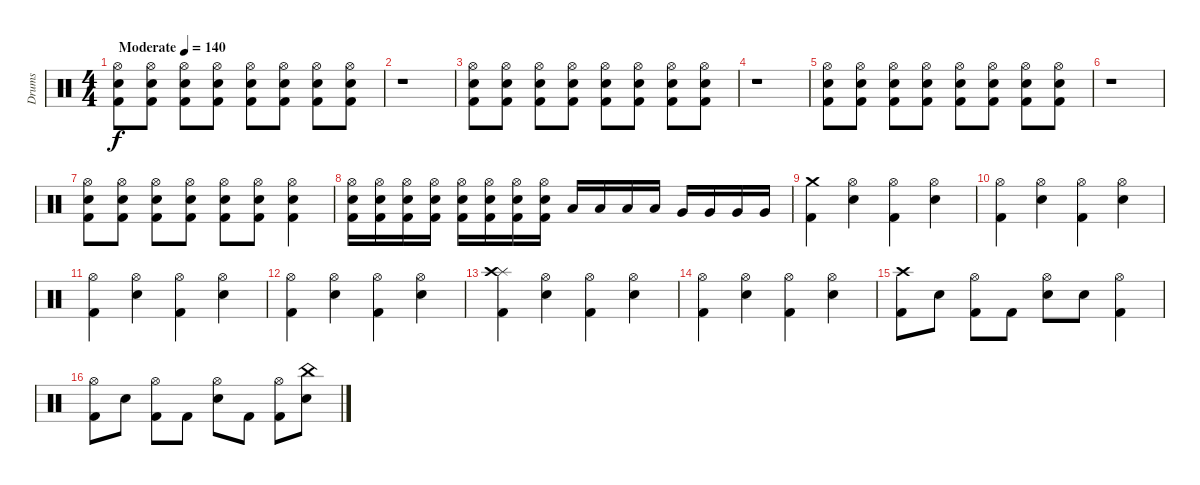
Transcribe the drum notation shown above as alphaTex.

\track ("Drums" "Drums") {instrument percussion}
\staff {score}
\articulation defaults
\ts (4 4)
\tempo (140 "Moderate")
\clef neutral
\ks c
("Hi-Hat (open)" "Snare (hit) 2" "Kick (hit) 2").8{dy f} ("Hi-Hat (open)" "Snare (hit) 2" "Kick (hit) 2").8 ("Hi-Hat (open)" "Snare (hit) 2" "Kick (hit) 2").8 ("Hi-Hat (open)" "Snare (hit) 2" "Kick (hit) 2").8 ("Hi-Hat (open)" "Snare (hit) 2" "Kick (hit) 2").8 ("Hi-Hat (open)" "Snare (hit) 2" "Kick (hit) 2").8 ("Hi-Hat (open)" "Snare (hit) 2" "Kick (hit) 2").8 ("Hi-Hat (open)" "Snare (hit) 2" "Kick (hit) 2").8 |
r.1 |
("Hi-Hat (open)" "Snare (hit) 2" "Kick (hit) 2").8 ("Hi-Hat (open)" "Snare (hit) 2" "Kick (hit) 2").8 ("Hi-Hat (open)" "Snare (hit) 2" "Kick (hit) 2").8 ("Hi-Hat (open)" "Snare (hit) 2" "Kick (hit) 2").8 ("Hi-Hat (open)" "Snare (hit) 2" "Kick (hit) 2").8 ("Hi-Hat (open)" "Snare (hit) 2" "Kick (hit) 2").8 ("Hi-Hat (open)" "Snare (hit) 2" "Kick (hit) 2").8 ("Hi-Hat (open)" "Snare (hit) 2" "Kick (hit) 2").8 |
r.1 |
("Hi-Hat (open)" "Snare (hit) 2" "Kick (hit) 2").8 ("Hi-Hat (open)" "Snare (hit) 2" "Kick (hit) 2").8 ("Hi-Hat (open)" "Snare (hit) 2" "Kick (hit) 2").8 ("Hi-Hat (open)" "Snare (hit) 2" "Kick (hit) 2").8 ("Hi-Hat (open)" "Snare (hit) 2" "Kick (hit) 2").8 ("Hi-Hat (open)" "Snare (hit) 2" "Kick (hit) 2").8 ("Hi-Hat (open)" "Snare (hit) 2" "Kick (hit) 2").8 ("Hi-Hat (open)" "Snare (hit) 2" "Kick (hit) 2").8 |
r.1 |
("Hi-Hat (open)" "Snare (hit) 2" "Kick (hit) 2").8 ("Hi-Hat (open)" "Snare (hit) 2" "Kick (hit) 2").8 ("Hi-Hat (open)" "Snare (hit) 2" "Kick (hit) 2").8 ("Hi-Hat (open)" "Snare (hit) 2" "Kick (hit) 2").8 ("Hi-Hat (open)" "Snare (hit) 2" "Kick (hit) 2").8 ("Hi-Hat (open)" "Snare (hit) 2" "Kick (hit) 2").8 ("Hi-Hat (open)" "Snare (hit) 2" "Kick (hit) 2").4 |
("Hi-Hat (open)" "Snare (hit) 2" "Kick (hit) 2").16 ("Hi-Hat (open)" "Snare (hit) 2" "Kick (hit) 2").16 ("Hi-Hat (open)" "Snare (hit) 2" "Kick (hit) 2").16 ("Hi-Hat (open)" "Snare (hit) 2" "Kick (hit) 2").16 ("Hi-Hat (open)" "Snare (hit) 2" "Kick (hit) 2").16 ("Hi-Hat (open)" "Snare (hit) 2" "Kick (hit) 2").16 ("Hi-Hat (open)" "Snare (hit) 2" "Kick (hit) 2").16 ("Hi-Hat (open)" "Snare (hit) 2" "Kick (hit) 2").16 "Low Tom (hit)".16 "Low Tom (hit)".16 "Low Tom (hit)".16 "Low Tom (hit)".16 "Very Low Tom (hit)".16 "Very Low Tom (hit)".16 "Very Low Tom (hit)".16 "Very Low Tom (hit)".16 |
("Crash medium (hit)" "Kick (hit) 2").4 ("Hi-Hat (open)" "Snare (hit) 2").4 ("Hi-Hat (open)" "Kick (hit) 2").4 ("Hi-Hat (open)" "Snare (hit) 2").4 |
("Hi-Hat (open)" "Kick (hit) 2").4 ("Hi-Hat (open)" "Snare (hit) 2").4 ("Hi-Hat (open)" "Kick (hit) 2").4 ("Hi-Hat (open)" "Snare (hit) 2").4 |
("Hi-Hat (open)" "Kick (hit) 2").4 ("Hi-Hat (open)" "Snare (hit) 2").4 ("Hi-Hat (open)" "Kick (hit) 2").4 ("Hi-Hat (open)" "Snare (hit) 2").4 |
("Hi-Hat (open)" "Kick (hit) 2").4 ("Hi-Hat (open)" "Snare (hit) 2").4 ("Hi-Hat (open)" "Kick (hit) 2").4 ("Hi-Hat (open)" "Snare (hit) 2").4 |
("Splash (hit)" "Crash high (hit)" "Kick (hit) 2").4 ("Hi-Hat (open)" "Snare (hit) 2").4 ("Hi-Hat (open)" "Kick (hit) 2").4 ("Hi-Hat (open)" "Snare (hit) 2").4 |
("Hi-Hat (open)" "Kick (hit) 2").4 ("Hi-Hat (open)" "Snare (hit) 2").4 ("Hi-Hat (open)" "Kick (hit) 2").4 ("Hi-Hat (open)" "Snare (hit) 2").4 |
("Crash high (hit)" "Kick (hit) 2").8 "Snare (hit) 2".8 ("Hi-Hat (open)" "Kick (hit) 2").8 "Kick (hit) 2".8 ("Hi-Hat (open)" "Snare (hit) 2").8 "Snare (hit) 2".8 ("Hi-Hat (open)" "Kick (hit) 2").4 |
("Hi-Hat (open)" "Kick (hit) 2").8 "Snare (hit) 2".8 ("Hi-Hat (open)" "Kick (hit) 2").8 "Kick (hit) 2".8 ("Hi-Hat (open)" "Snare (hit) 2").8 "Kick (hit) 2".8 ("Hi-Hat (open)" "Kick (hit) 2").8 ("China (hit)" "Snare (hit) 2").8
